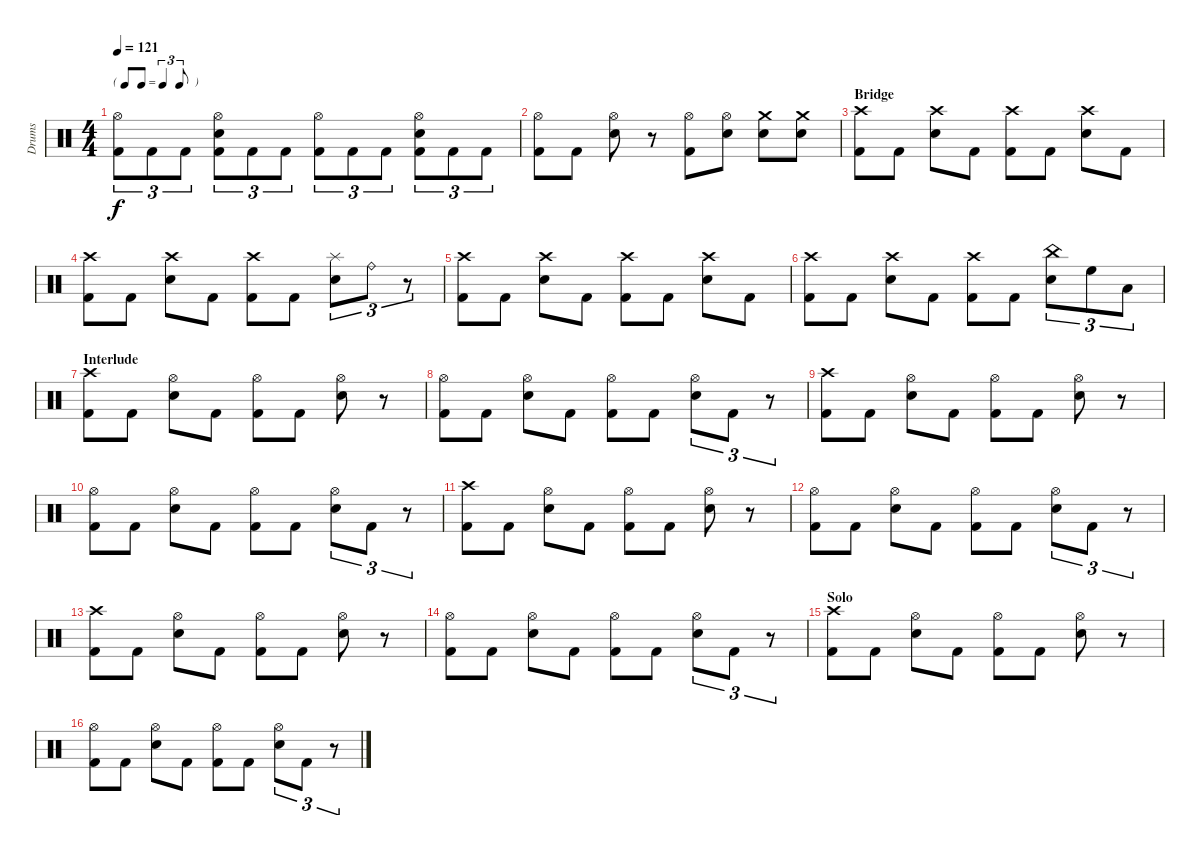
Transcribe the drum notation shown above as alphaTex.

\track ("Drums" "Drums") {instrument percussion}
\staff {score}
\articulation defaults
\ts (4 4)
\tf triplet8th
\tempo 121
\clef neutral
\ks c
("Hi-Hat (open)" "Kick (hit) 2").8{tu (3 2) dy f} "Kick (hit) 2".8{tu (3 2)} "Kick (hit) 2".8{tu (3 2)} ("Hi-Hat (open)" "Electric Snare (hit)" "Kick (hit) 2").8{tu (3 2)} "Kick (hit) 2".8{tu (3 2)} "Kick (hit) 2".8{tu (3 2)} ("Hi-Hat (open)" "Kick (hit) 2").8{tu (3 2)} "Kick (hit) 2".8{tu (3 2)} "Kick (hit) 2".8{tu (3 2)} ("Hi-Hat (open)" "Electric Snare (hit)" "Kick (hit) 2").8{tu (3 2)} "Kick (hit) 2".8{tu (3 2)} "Kick (hit) 2".8{tu (3 2)} |
("Hi-Hat (open)" "Kick (hit) 2").8 "Kick (hit) 2".8 ("Hi-Hat (open)" "Electric Snare (hit)").8 r.8 ("Hi-Hat (open)" "Kick (hit) 2").8 ("Hi-Hat (open)" "Electric Snare (hit)").8 ("Crash medium (hit)" "Electric Snare (hit)").8 ("Crash medium (hit)" "Electric Snare (hit)").8 |
\section ("" "Bridge")
("Crash high (hit)" "Kick (hit) 2").8 "Kick (hit) 2".8 ("Crash high (hit)" "Electric Snare (hit)").8 "Kick (hit) 2".8 ("Crash high (hit)" "Kick (hit) 2").8 "Kick (hit) 2".8 ("Crash high (hit)" "Electric Snare (hit)").8 "Kick (hit) 2".8 |
("Crash high (hit)" "Kick (hit) 2").8 "Kick (hit) 2".8 ("Crash high (hit)" "Electric Snare (hit)").8 "Kick (hit) 2".8 ("Crash high (hit)" "Kick (hit) 2").8 "Kick (hit) 2".8 ("Splash (hit)" "Electric Snare (hit)").8{tu (3 2)} "Ride (bell)".8{tu (3 2)} r.8{tu (3 2)} |
("Crash high (hit)" "Kick (hit) 2").8 "Kick (hit) 2".8 ("Crash high (hit)" "Electric Snare (hit)").8 "Kick (hit) 2".8 ("Crash high (hit)" "Kick (hit) 2").8 "Kick (hit) 2".8 ("Crash high (hit)" "Electric Snare (hit)").8 "Kick (hit) 2".8 |
("Crash high (hit)" "Kick (hit) 2").8 "Kick (hit) 2".8 ("Crash high (hit)" "Electric Snare (hit)").8 "Kick (hit) 2".8 ("Crash high (hit)" "Kick (hit) 2").8 "Kick (hit) 2".8 ("China (hit)" "Electric Snare (hit)").8{tu (3 2)} "High Floor Tom (hit)".8{tu (3 2)} "Low Tom (hit)".8{tu (3 2)} |
\section ("" "Interlude")
("Crash high (hit)" "Kick (hit) 2").8 "Kick (hit) 2".8 ("Hi-Hat (open)" "Electric Snare (hit)").8 "Kick (hit) 2".8 ("Hi-Hat (open)" "Kick (hit) 2").8 "Kick (hit) 2".8 ("Hi-Hat (open)" "Electric Snare (hit)").8 r.8 |
("Hi-Hat (open)" "Kick (hit) 2").8 "Kick (hit) 2".8 ("Hi-Hat (open)" "Electric Snare (hit)").8 "Kick (hit) 2".8 ("Hi-Hat (open)" "Kick (hit) 2").8 "Kick (hit) 2".8 ("Hi-Hat (open)" "Electric Snare (hit)").8{tu (3 2)} "Kick (hit) 2".8{tu (3 2)} r.8{tu (3 2)} |
("Crash high (hit)" "Kick (hit) 2").8 "Kick (hit) 2".8 ("Hi-Hat (open)" "Electric Snare (hit)").8 "Kick (hit) 2".8 ("Hi-Hat (open)" "Kick (hit) 2").8 "Kick (hit) 2".8 ("Hi-Hat (open)" "Electric Snare (hit)").8 r.8 |
("Hi-Hat (open)" "Kick (hit) 2").8 "Kick (hit) 2".8 ("Hi-Hat (open)" "Electric Snare (hit)").8 "Kick (hit) 2".8 ("Hi-Hat (open)" "Kick (hit) 2").8 "Kick (hit) 2".8 ("Hi-Hat (open)" "Electric Snare (hit)").8{tu (3 2)} "Kick (hit) 2".8{tu (3 2)} r.8{tu (3 2)} |
("Crash high (hit)" "Kick (hit) 2").8 "Kick (hit) 2".8 ("Hi-Hat (open)" "Electric Snare (hit)").8 "Kick (hit) 2".8 ("Hi-Hat (open)" "Kick (hit) 2").8 "Kick (hit) 2".8 ("Hi-Hat (open)" "Electric Snare (hit)").8 r.8 |
("Hi-Hat (open)" "Kick (hit) 2").8 "Kick (hit) 2".8 ("Hi-Hat (open)" "Electric Snare (hit)").8 "Kick (hit) 2".8 ("Hi-Hat (open)" "Kick (hit) 2").8 "Kick (hit) 2".8 ("Hi-Hat (open)" "Electric Snare (hit)").8{tu (3 2)} "Kick (hit) 2".8{tu (3 2)} r.8{tu (3 2)} |
("Crash high (hit)" "Kick (hit) 2").8 "Kick (hit) 2".8 ("Hi-Hat (open)" "Electric Snare (hit)").8 "Kick (hit) 2".8 ("Hi-Hat (open)" "Kick (hit) 2").8 "Kick (hit) 2".8 ("Hi-Hat (open)" "Electric Snare (hit)").8 r.8 |
("Hi-Hat (open)" "Kick (hit) 2").8 "Kick (hit) 2".8 ("Hi-Hat (open)" "Electric Snare (hit)").8 "Kick (hit) 2".8 ("Hi-Hat (open)" "Kick (hit) 2").8 "Kick (hit) 2".8 ("Hi-Hat (open)" "Electric Snare (hit)").8{tu (3 2)} "Kick (hit) 2".8{tu (3 2)} r.8{tu (3 2)} |
\section ("" "Solo")
("Crash high (hit)" "Kick (hit) 2").8 "Kick (hit) 2".8 ("Hi-Hat (open)" "Electric Snare (hit)").8 "Kick (hit) 2".8 ("Hi-Hat (open)" "Kick (hit) 2").8 "Kick (hit) 2".8 ("Hi-Hat (open)" "Electric Snare (hit)").8 r.8 |
("Hi-Hat (open)" "Kick (hit) 2").8 "Kick (hit) 2".8 ("Hi-Hat (open)" "Electric Snare (hit)").8 "Kick (hit) 2".8 ("Hi-Hat (open)" "Kick (hit) 2").8 "Kick (hit) 2".8 ("Hi-Hat (open)" "Electric Snare (hit)").8{tu (3 2)} "Kick (hit) 2".8{tu (3 2)} r.8{tu (3 2)}
